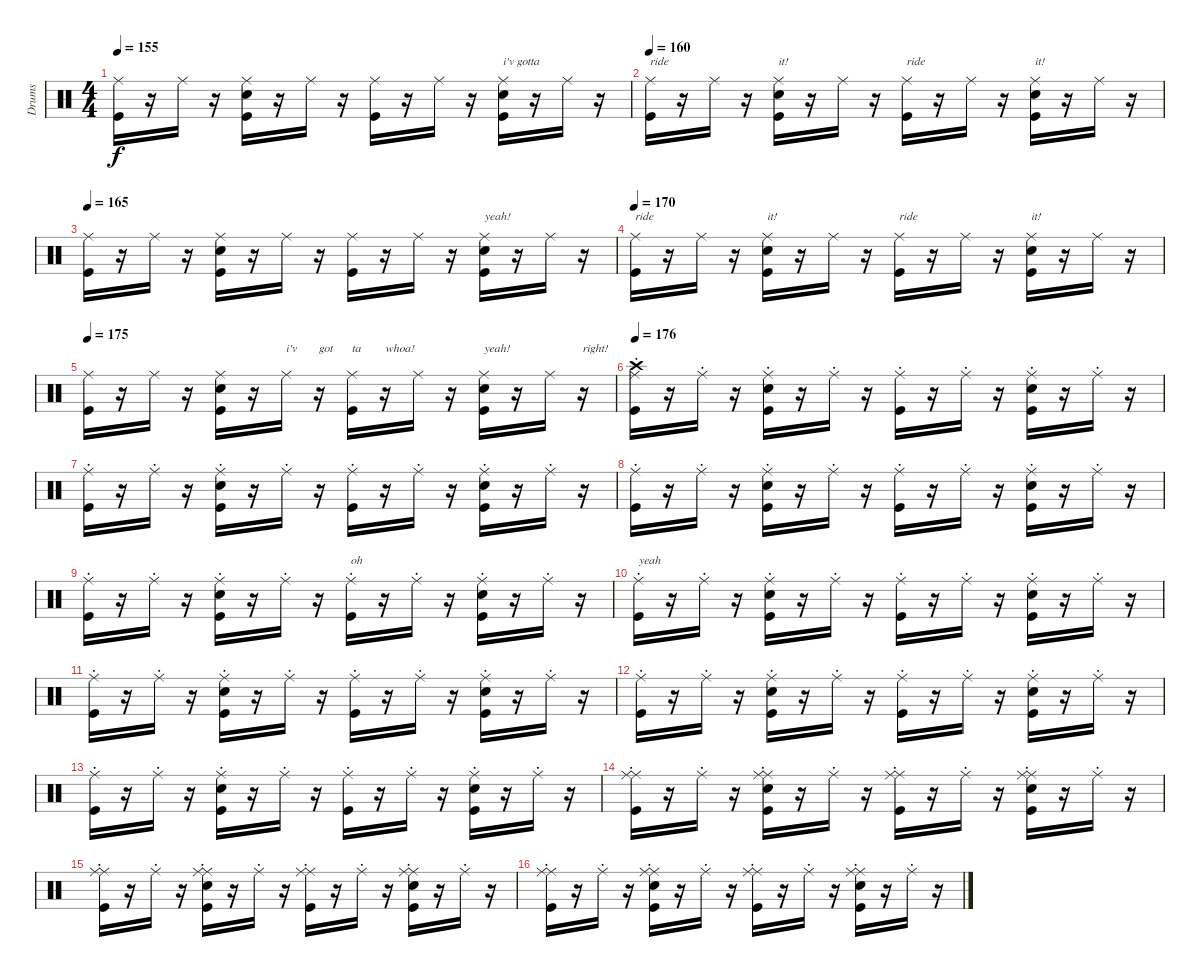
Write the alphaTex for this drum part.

\track ("Drums" "Drums") {instrument percussion}
\staff {score}
\articulation defaults
\ts (4 4)
\tempo 155
\clef neutral
\ks c
("Kick (hit)" "Ride (middle)").16{dy f} r.16 "Ride (middle)".16 r.16 ("Kick (hit)" "Snare (hit) 2" "Ride (middle)").16 r.16 "Ride (middle)".16 r.16 ("Kick (hit)" "Ride (middle)").16 r.16 "Ride (middle)".16 r.16 ("Kick (hit)" "Snare (hit) 2" "Ride (middle)").16{txt "i'v gotta"} r.16 "Ride (middle)".16 r.16 |
\tempo 160
("Kick (hit)" "Ride (middle)").16{txt "ride"} r.16 "Ride (middle)".16 r.16 ("Kick (hit)" "Snare (hit) 2" "Ride (middle)").16{txt "it!"} r.16 "Ride (middle)".16 r.16 ("Kick (hit)" "Ride (middle)").16{txt "ride"} r.16 "Ride (middle)".16 r.16 ("Kick (hit)" "Snare (hit) 2" "Ride (middle)").16{txt "it!"} r.16 "Ride (middle)".16 r.16 |
\tempo 165
("Kick (hit)" "Ride (middle)").16 r.16 "Ride (middle)".16 r.16 ("Kick (hit)" "Snare (hit) 2" "Ride (middle)").16 r.16 "Ride (middle)".16 r.16 ("Kick (hit)" "Ride (middle)").16 r.16 "Ride (middle)".16 r.16 ("Kick (hit)" "Snare (hit) 2" "Ride (middle)").16{txt "yeah!"} r.16 "Ride (middle)".16 r.16 |
\tempo 170
("Kick (hit)" "Ride (middle)").16{txt "ride"} r.16 "Ride (middle)".16 r.16 ("Kick (hit)" "Snare (hit) 2" "Ride (middle)").16{txt "it!"} r.16 "Ride (middle)".16 r.16 ("Kick (hit)" "Ride (middle)").16{txt "ride"} r.16 "Ride (middle)".16 r.16 ("Kick (hit)" "Snare (hit) 2" "Ride (middle)").16{txt "it!"} r.16 "Ride (middle)".16 r.16 |
\tempo 175
("Kick (hit)" "Ride (middle)").16 r.16 "Ride (middle)".16 r.16 ("Kick (hit)" "Snare (hit) 2" "Ride (middle)").16 r.16 "Ride (middle)".16{txt "i'v"} r.16{txt "got"} ("Kick (hit)" "Ride (middle)").16{txt "ta"} r.16{txt "whoa!"} "Ride (middle)".16 r.16 ("Kick (hit)" "Snare (hit) 2" "Ride (middle)").16{txt "yeah!"} r.16 "Ride (middle)".16 r.16{txt "right!"} |
\tempo 176
("Crash high (hit)" "Kick (hit)" "Ride (choke)").16 r.16 "Ride (choke)".16 r.16 ("Kick (hit)" "Snare (hit) 2" "Ride (choke)").16 r.16 "Ride (choke)".16 r.16 ("Ride (choke)" "Kick (hit)").16 r.16 "Ride (choke)".16 r.16 ("Kick (hit)" "Snare (hit) 2" "Ride (choke)").16 r.16 "Ride (choke)".16 r.16 |
("Ride (choke)" "Kick (hit)").16 r.16 "Ride (choke)".16 r.16 ("Kick (hit)" "Snare (hit) 2" "Ride (choke)").16 r.16 "Ride (choke)".16 r.16 ("Ride (choke)" "Kick (hit)").16 r.16 "Ride (choke)".16 r.16 ("Kick (hit)" "Snare (hit) 2" "Ride (choke)").16 r.16 "Ride (choke)".16 r.16 |
("Ride (choke)" "Kick (hit)").16 r.16 "Ride (choke)".16 r.16 ("Kick (hit)" "Snare (hit) 2" "Ride (choke)").16 r.16 "Ride (choke)".16 r.16 ("Kick (hit)" "Ride (choke)").16 r.16 "Ride (choke)".16 r.16 ("Kick (hit)" "Snare (hit) 2" "Ride (choke)").16 r.16 "Ride (choke)".16 r.16 |
("Kick (hit)" "Ride (choke)").16 r.16 "Ride (choke)".16 r.16 ("Kick (hit)" "Snare (hit) 2" "Ride (choke)").16 r.16 "Ride (choke)".16 r.16 ("Kick (hit)" "Ride (choke)").16{txt "oh"} r.16 "Ride (choke)".16 r.16 ("Kick (hit)" "Snare (hit) 2" "Ride (choke)").16 r.16 "Ride (choke)".16 r.16 |
("Kick (hit)" "Ride (choke)").16{txt "yeah"} r.16 "Ride (choke)".16 r.16 ("Kick (hit)" "Snare (hit) 2" "Ride (choke)").16 r.16 "Ride (choke)".16 r.16 ("Kick (hit)" "Ride (choke)").16 r.16 "Ride (choke)".16 r.16 ("Kick (hit)" "Snare (hit) 2" "Ride (choke)").16 r.16 "Ride (choke)".16 r.16 |
("Kick (hit)" "Ride (choke)").16 r.16 "Ride (choke)".16 r.16 ("Kick (hit)" "Snare (hit) 2" "Ride (choke)").16 r.16 "Ride (choke)".16 r.16 ("Kick (hit)" "Ride (choke)").16 r.16 "Ride (choke)".16 r.16 ("Kick (hit)" "Snare (hit) 2" "Ride (choke)").16 r.16 "Ride (choke)".16 r.16 |
("Kick (hit)" "Ride (choke)").16 r.16 "Ride (choke)".16 r.16 ("Kick (hit)" "Snare (hit) 2" "Ride (choke)").16 r.16 "Ride (choke)".16 r.16 ("Kick (hit)" "Ride (choke)").16 r.16 "Ride (choke)".16 r.16 ("Kick (hit)" "Snare (hit) 2" "Ride (choke)").16 r.16 "Ride (choke)".16 r.16 |
("Kick (hit)" "Ride (choke)").16 r.16 "Ride (choke)".16 r.16 ("Kick (hit)" "Snare (hit) 2" "Ride (choke)").16 r.16 "Ride (choke)".16 r.16 ("Kick (hit)" "Ride (choke)").16 r.16 "Ride (choke)".16 r.16 ("Kick (hit)" "Snare (hit) 2" "Ride (choke)").16 r.16 "Ride (choke)".16 r.16 |
("Ride (middle)" "Kick (hit)" "Ride (choke)").16 r.16 "Ride (choke)".16 r.16 ("Ride (middle)" "Kick (hit)" "Snare (hit) 2" "Ride (choke)").16 r.16 "Ride (choke)".16 r.16 ("Ride (middle)" "Kick (hit)" "Ride (choke)").16 r.16 "Ride (choke)".16 r.16 ("Ride (middle)" "Kick (hit)" "Snare (hit) 2" "Ride (choke)").16 r.16 "Ride (choke)".16 r.16 |
("Ride (middle)" "Kick (hit)" "Ride (choke)").16 r.16 "Ride (choke)".16 r.16 ("Ride (middle)" "Kick (hit)" "Snare (hit) 2" "Ride (choke)").16 r.16 "Ride (choke)".16 r.16 ("Ride (middle)" "Kick (hit)" "Ride (choke)").16 r.16 "Ride (choke)".16 r.16 ("Kick (hit)" "Snare (hit) 2" "Ride (choke)" "Ride (middle)").16 r.16 "Ride (choke)".16 r.16 |
("Ride (middle)" "Kick (hit)" "Ride (choke)").16 r.16 "Ride (choke)".16 r.16 ("Ride (middle)" "Kick (hit)" "Snare (hit) 2" "Ride (choke)").16 r.16 "Ride (choke)".16 r.16 ("Ride (middle)" "Kick (hit)" "Ride (choke)").16 r.16 "Ride (choke)".16 r.16 ("Ride (middle)" "Kick (hit)" "Snare (hit) 2" "Ride (choke)").16 r.16 "Ride (choke)".16 r.16
